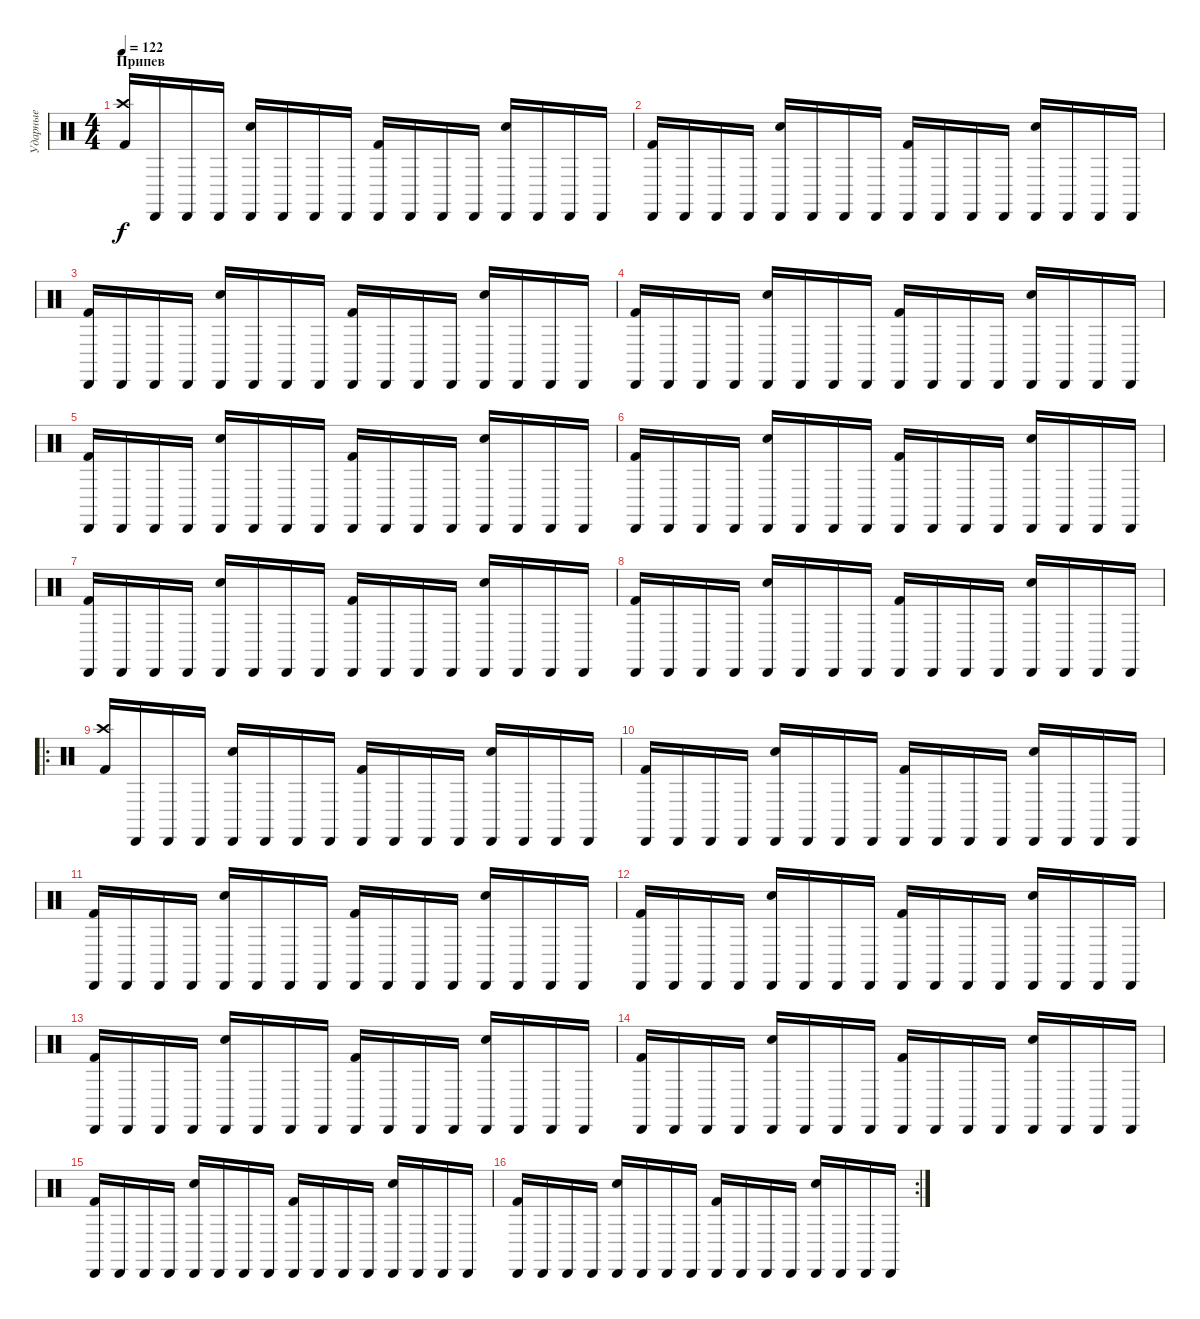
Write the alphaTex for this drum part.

\track ("Ударные" "Ударные") {instrument percussion}
\staff {score}
\articulation defaults
\ts (4 4)
\section ("" "Припев")
\tempo 122
\clef neutral
\ks c
("Crash high (hit)" "Kick (hit) 2").16{dy f} "Cabasa (hit)".16 "Cabasa (hit)".16 "Cabasa (hit)".16 ("Cabasa (hit)" "Snare (hit) 2").16 "Cabasa (hit)".16 "Cabasa (hit)".16 "Cabasa (hit)".16 ("Cabasa (hit)" "Kick (hit) 2").16 "Cabasa (hit)".16 "Cabasa (hit)".16 "Cabasa (hit)".16 ("Cabasa (hit)" "Snare (hit) 2").16 "Cabasa (hit)".16 "Cabasa (hit)".16 "Cabasa (hit)".16 |
("Cabasa (hit)" "Kick (hit) 2").16 "Cabasa (hit)".16 "Cabasa (hit)".16 "Cabasa (hit)".16 ("Cabasa (hit)" "Snare (hit) 2").16 "Cabasa (hit)".16 "Cabasa (hit)".16 "Cabasa (hit)".16 ("Cabasa (hit)" "Kick (hit) 2").16 "Cabasa (hit)".16 "Cabasa (hit)".16 "Cabasa (hit)".16 ("Cabasa (hit)" "Snare (hit) 2").16 "Cabasa (hit)".16 "Cabasa (hit)".16 "Cabasa (hit)".16 |
("Cabasa (hit)" "Kick (hit) 2").16 "Cabasa (hit)".16 "Cabasa (hit)".16 "Cabasa (hit)".16 ("Cabasa (hit)" "Snare (hit) 2").16 "Cabasa (hit)".16 "Cabasa (hit)".16 "Cabasa (hit)".16 ("Cabasa (hit)" "Kick (hit) 2").16 "Cabasa (hit)".16 "Cabasa (hit)".16 "Cabasa (hit)".16 ("Cabasa (hit)" "Snare (hit) 2").16 "Cabasa (hit)".16 "Cabasa (hit)".16 "Cabasa (hit)".16 |
("Cabasa (hit)" "Kick (hit) 2").16 "Cabasa (hit)".16 "Cabasa (hit)".16 "Cabasa (hit)".16 ("Cabasa (hit)" "Snare (hit) 2").16 "Cabasa (hit)".16 "Cabasa (hit)".16 "Cabasa (hit)".16 ("Cabasa (hit)" "Kick (hit) 2").16 "Cabasa (hit)".16 "Cabasa (hit)".16 "Cabasa (hit)".16 ("Cabasa (hit)" "Snare (hit) 2").16 "Cabasa (hit)".16 "Cabasa (hit)".16 "Cabasa (hit)".16 |
("Cabasa (hit)" "Kick (hit) 2").16 "Cabasa (hit)".16 "Cabasa (hit)".16 "Cabasa (hit)".16 ("Cabasa (hit)" "Snare (hit) 2").16 "Cabasa (hit)".16 "Cabasa (hit)".16 "Cabasa (hit)".16 ("Cabasa (hit)" "Kick (hit) 2").16 "Cabasa (hit)".16 "Cabasa (hit)".16 "Cabasa (hit)".16 ("Cabasa (hit)" "Snare (hit) 2").16 "Cabasa (hit)".16 "Cabasa (hit)".16 "Cabasa (hit)".16 |
("Cabasa (hit)" "Kick (hit) 2").16 "Cabasa (hit)".16 "Cabasa (hit)".16 "Cabasa (hit)".16 ("Cabasa (hit)" "Snare (hit) 2").16 "Cabasa (hit)".16 "Cabasa (hit)".16 "Cabasa (hit)".16 ("Cabasa (hit)" "Kick (hit) 2").16 "Cabasa (hit)".16 "Cabasa (hit)".16 "Cabasa (hit)".16 ("Cabasa (hit)" "Snare (hit) 2").16 "Cabasa (hit)".16 "Cabasa (hit)".16 "Cabasa (hit)".16 |
("Cabasa (hit)" "Kick (hit) 2").16 "Cabasa (hit)".16 "Cabasa (hit)".16 "Cabasa (hit)".16 ("Cabasa (hit)" "Snare (hit) 2").16 "Cabasa (hit)".16 "Cabasa (hit)".16 "Cabasa (hit)".16 ("Cabasa (hit)" "Kick (hit) 2").16 "Cabasa (hit)".16 "Cabasa (hit)".16 "Cabasa (hit)".16 ("Cabasa (hit)" "Snare (hit) 2").16 "Cabasa (hit)".16 "Cabasa (hit)".16 "Cabasa (hit)".16 |
("Cabasa (hit)" "Kick (hit) 2").16 "Cabasa (hit)".16 "Cabasa (hit)".16 "Cabasa (hit)".16 ("Cabasa (hit)" "Snare (hit) 2").16 "Cabasa (hit)".16 "Cabasa (hit)".16 "Cabasa (hit)".16 ("Cabasa (hit)" "Kick (hit) 2").16 "Cabasa (hit)".16 "Cabasa (hit)".16 "Cabasa (hit)".16 ("Cabasa (hit)" "Snare (hit) 2").16 "Cabasa (hit)".16 "Cabasa (hit)".16 "Cabasa (hit)".16 |
\ro
("Crash high (hit)" "Kick (hit) 2").16 "Cabasa (hit)".16 "Cabasa (hit)".16 "Cabasa (hit)".16 ("Cabasa (hit)" "Snare (hit) 2").16 "Cabasa (hit)".16 "Cabasa (hit)".16 "Cabasa (hit)".16 ("Cabasa (hit)" "Kick (hit) 2").16 "Cabasa (hit)".16 "Cabasa (hit)".16 "Cabasa (hit)".16 ("Cabasa (hit)" "Snare (hit) 2").16 "Cabasa (hit)".16 "Cabasa (hit)".16 "Cabasa (hit)".16 |
("Cabasa (hit)" "Kick (hit) 2").16 "Cabasa (hit)".16 "Cabasa (hit)".16 "Cabasa (hit)".16 ("Cabasa (hit)" "Snare (hit) 2").16 "Cabasa (hit)".16 "Cabasa (hit)".16 "Cabasa (hit)".16 ("Cabasa (hit)" "Kick (hit) 2").16 "Cabasa (hit)".16 "Cabasa (hit)".16 "Cabasa (hit)".16 ("Cabasa (hit)" "Snare (hit) 2").16 "Cabasa (hit)".16 "Cabasa (hit)".16 "Cabasa (hit)".16 |
("Cabasa (hit)" "Kick (hit) 2").16 "Cabasa (hit)".16 "Cabasa (hit)".16 "Cabasa (hit)".16 ("Cabasa (hit)" "Snare (hit) 2").16 "Cabasa (hit)".16 "Cabasa (hit)".16 "Cabasa (hit)".16 ("Cabasa (hit)" "Kick (hit) 2").16 "Cabasa (hit)".16 "Cabasa (hit)".16 "Cabasa (hit)".16 ("Cabasa (hit)" "Snare (hit) 2").16 "Cabasa (hit)".16 "Cabasa (hit)".16 "Cabasa (hit)".16 |
("Cabasa (hit)" "Kick (hit) 2").16 "Cabasa (hit)".16 "Cabasa (hit)".16 "Cabasa (hit)".16 ("Cabasa (hit)" "Snare (hit) 2").16 "Cabasa (hit)".16 "Cabasa (hit)".16 "Cabasa (hit)".16 ("Cabasa (hit)" "Kick (hit) 2").16 "Cabasa (hit)".16 "Cabasa (hit)".16 "Cabasa (hit)".16 ("Cabasa (hit)" "Snare (hit) 2").16 "Cabasa (hit)".16 "Cabasa (hit)".16 "Cabasa (hit)".16 |
("Cabasa (hit)" "Kick (hit) 2").16 "Cabasa (hit)".16 "Cabasa (hit)".16 "Cabasa (hit)".16 ("Cabasa (hit)" "Snare (hit) 2").16 "Cabasa (hit)".16 "Cabasa (hit)".16 "Cabasa (hit)".16 ("Cabasa (hit)" "Kick (hit) 2").16 "Cabasa (hit)".16 "Cabasa (hit)".16 "Cabasa (hit)".16 ("Cabasa (hit)" "Snare (hit) 2").16 "Cabasa (hit)".16 "Cabasa (hit)".16 "Cabasa (hit)".16 |
("Cabasa (hit)" "Kick (hit) 2").16 "Cabasa (hit)".16 "Cabasa (hit)".16 "Cabasa (hit)".16 ("Cabasa (hit)" "Snare (hit) 2").16 "Cabasa (hit)".16 "Cabasa (hit)".16 "Cabasa (hit)".16 ("Cabasa (hit)" "Kick (hit) 2").16 "Cabasa (hit)".16 "Cabasa (hit)".16 "Cabasa (hit)".16 ("Cabasa (hit)" "Snare (hit) 2").16 "Cabasa (hit)".16 "Cabasa (hit)".16 "Cabasa (hit)".16 |
("Cabasa (hit)" "Kick (hit) 2").16 "Cabasa (hit)".16 "Cabasa (hit)".16 "Cabasa (hit)".16 ("Cabasa (hit)" "Snare (hit) 2").16 "Cabasa (hit)".16 "Cabasa (hit)".16 "Cabasa (hit)".16 ("Cabasa (hit)" "Kick (hit) 2").16 "Cabasa (hit)".16 "Cabasa (hit)".16 "Cabasa (hit)".16 ("Cabasa (hit)" "Snare (hit) 2").16 "Cabasa (hit)".16 "Cabasa (hit)".16 "Cabasa (hit)".16 |
\rc 2
("Cabasa (hit)" "Kick (hit) 2").16 "Cabasa (hit)".16 "Cabasa (hit)".16 "Cabasa (hit)".16 ("Cabasa (hit)" "Snare (hit) 2").16 "Cabasa (hit)".16 "Cabasa (hit)".16 "Cabasa (hit)".16 ("Cabasa (hit)" "Kick (hit) 2").16 "Cabasa (hit)".16 "Cabasa (hit)".16 "Cabasa (hit)".16 ("Cabasa (hit)" "Snare (hit) 2").16 "Cabasa (hit)".16 "Cabasa (hit)".16 "Cabasa (hit)".16
